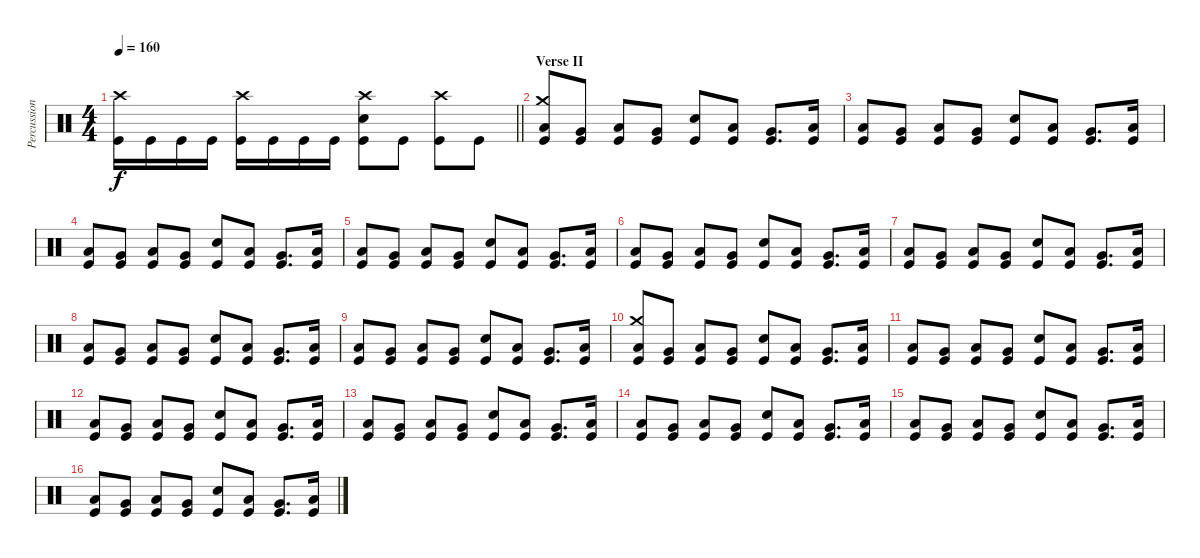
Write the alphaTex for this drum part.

\track ("Percussion" "Percussion") {instrument percussion}
\staff {score}
\articulation defaults
\ts (4 4)
\tempo 160
\clef neutral
\barLineRight lightlight
\ks c
("Crash high (hit)" "Kick (hit)").16{dy f} "Kick (hit)".16 "Kick (hit)".16 "Kick (hit)".16 ("Crash high (hit)" "Kick (hit)").16 "Kick (hit)".16 "Kick (hit)".16 "Kick (hit)".16 ("Crash high (hit)" "Electric Snare (hit)" "Kick (hit)").8 "Kick (hit)".8 ("Crash high (hit)" "Kick (hit)").8 "Kick (hit)".8 |
\section ("" "Verse II")
("Crash medium (hit)" "Low Tom (hit)" "Kick (hit)").8 ("Very Low Tom (hit)" "Kick (hit)").8 ("Low Tom (hit)" "Kick (hit)").8 ("Very Low Tom (hit)" "Kick (hit)").8 ("Electric Snare (hit)" "Kick (hit)").8 ("Low Tom (hit)" "Kick (hit)").8 ("Very Low Tom (hit)" "Kick (hit)").8{d} ("Low Floor Tom (hit)" "Kick (hit)").16 |
("Low Tom (hit)" "Kick (hit)").8 ("Very Low Tom (hit)" "Kick (hit)").8 ("Low Tom (hit)" "Kick (hit)").8 ("Very Low Tom (hit)" "Kick (hit)").8 ("Electric Snare (hit)" "Kick (hit)").8 ("Low Tom (hit)" "Kick (hit)").8 ("Very Low Tom (hit)" "Kick (hit)").8{d} ("Low Floor Tom (hit)" "Kick (hit)").16 |
("Low Tom (hit)" "Kick (hit)").8 ("Very Low Tom (hit)" "Kick (hit)").8 ("Low Tom (hit)" "Kick (hit)").8 ("Very Low Tom (hit)" "Kick (hit)").8 ("Electric Snare (hit)" "Kick (hit)").8 ("Low Tom (hit)" "Kick (hit)").8 ("Very Low Tom (hit)" "Kick (hit)").8{d} ("Low Floor Tom (hit)" "Kick (hit)").16 |
("Low Tom (hit)" "Kick (hit)").8 ("Very Low Tom (hit)" "Kick (hit)").8 ("Low Tom (hit)" "Kick (hit)").8 ("Very Low Tom (hit)" "Kick (hit)").8 ("Electric Snare (hit)" "Kick (hit)").8 ("Low Tom (hit)" "Kick (hit)").8 ("Very Low Tom (hit)" "Kick (hit)").8{d} ("Low Floor Tom (hit)" "Kick (hit)").16 |
("Low Tom (hit)" "Kick (hit)").8 ("Very Low Tom (hit)" "Kick (hit)").8 ("Low Tom (hit)" "Kick (hit)").8 ("Very Low Tom (hit)" "Kick (hit)").8 ("Electric Snare (hit)" "Kick (hit)").8 ("Low Tom (hit)" "Kick (hit)").8 ("Very Low Tom (hit)" "Kick (hit)").8{d} ("Low Floor Tom (hit)" "Kick (hit)").16 |
("Low Tom (hit)" "Kick (hit)").8 ("Very Low Tom (hit)" "Kick (hit)").8 ("Low Tom (hit)" "Kick (hit)").8 ("Very Low Tom (hit)" "Kick (hit)").8 ("Electric Snare (hit)" "Kick (hit)").8 ("Low Tom (hit)" "Kick (hit)").8 ("Very Low Tom (hit)" "Kick (hit)").8{d} ("Low Floor Tom (hit)" "Kick (hit)").16 |
("Low Tom (hit)" "Kick (hit)").8 ("Very Low Tom (hit)" "Kick (hit)").8 ("Low Tom (hit)" "Kick (hit)").8 ("Very Low Tom (hit)" "Kick (hit)").8 ("Electric Snare (hit)" "Kick (hit)").8 ("Low Tom (hit)" "Kick (hit)").8 ("Very Low Tom (hit)" "Kick (hit)").8{d} ("Low Floor Tom (hit)" "Kick (hit)").16 |
("Low Tom (hit)" "Kick (hit)").8 ("Very Low Tom (hit)" "Kick (hit)").8 ("Low Tom (hit)" "Kick (hit)").8 ("Very Low Tom (hit)" "Kick (hit)").8 ("Electric Snare (hit)" "Kick (hit)").8 ("Low Tom (hit)" "Kick (hit)").8 ("Very Low Tom (hit)" "Kick (hit)").8{d} ("Low Floor Tom (hit)" "Kick (hit)").16 |
("Crash medium (hit)" "Low Tom (hit)" "Kick (hit)").8 ("Very Low Tom (hit)" "Kick (hit)").8 ("Low Tom (hit)" "Kick (hit)").8 ("Very Low Tom (hit)" "Kick (hit)").8 ("Electric Snare (hit)" "Kick (hit)").8 ("Low Tom (hit)" "Kick (hit)").8 ("Very Low Tom (hit)" "Kick (hit)").8{d} ("Low Floor Tom (hit)" "Kick (hit)").16 |
("Low Tom (hit)" "Kick (hit)").8 ("Very Low Tom (hit)" "Kick (hit)").8 ("Low Tom (hit)" "Kick (hit)").8 ("Very Low Tom (hit)" "Kick (hit)").8 ("Electric Snare (hit)" "Kick (hit)").8 ("Low Tom (hit)" "Kick (hit)").8 ("Very Low Tom (hit)" "Kick (hit)").8{d} ("Low Floor Tom (hit)" "Kick (hit)").16 |
("Low Tom (hit)" "Kick (hit)").8 ("Very Low Tom (hit)" "Kick (hit)").8 ("Low Tom (hit)" "Kick (hit)").8 ("Very Low Tom (hit)" "Kick (hit)").8 ("Electric Snare (hit)" "Kick (hit)").8 ("Low Tom (hit)" "Kick (hit)").8 ("Very Low Tom (hit)" "Kick (hit)").8{d} ("Low Floor Tom (hit)" "Kick (hit)").16 |
("Low Tom (hit)" "Kick (hit)").8 ("Very Low Tom (hit)" "Kick (hit)").8 ("Low Tom (hit)" "Kick (hit)").8 ("Very Low Tom (hit)" "Kick (hit)").8 ("Electric Snare (hit)" "Kick (hit)").8 ("Low Tom (hit)" "Kick (hit)").8 ("Very Low Tom (hit)" "Kick (hit)").8{d} ("Low Floor Tom (hit)" "Kick (hit)").16 |
("Low Tom (hit)" "Kick (hit)").8 ("Very Low Tom (hit)" "Kick (hit)").8 ("Low Tom (hit)" "Kick (hit)").8 ("Very Low Tom (hit)" "Kick (hit)").8 ("Electric Snare (hit)" "Kick (hit)").8 ("Low Tom (hit)" "Kick (hit)").8 ("Very Low Tom (hit)" "Kick (hit)").8{d} ("Low Floor Tom (hit)" "Kick (hit)").16 |
("Low Tom (hit)" "Kick (hit)").8 ("Very Low Tom (hit)" "Kick (hit)").8 ("Low Tom (hit)" "Kick (hit)").8 ("Very Low Tom (hit)" "Kick (hit)").8 ("Electric Snare (hit)" "Kick (hit)").8 ("Low Tom (hit)" "Kick (hit)").8 ("Very Low Tom (hit)" "Kick (hit)").8{d} ("Low Floor Tom (hit)" "Kick (hit)").16 |
("Low Tom (hit)" "Kick (hit)").8 ("Very Low Tom (hit)" "Kick (hit)").8 ("Low Tom (hit)" "Kick (hit)").8 ("Very Low Tom (hit)" "Kick (hit)").8 ("Electric Snare (hit)" "Kick (hit)").8 ("Low Tom (hit)" "Kick (hit)").8 ("Very Low Tom (hit)" "Kick (hit)").8{d} ("Low Floor Tom (hit)" "Kick (hit)").16
